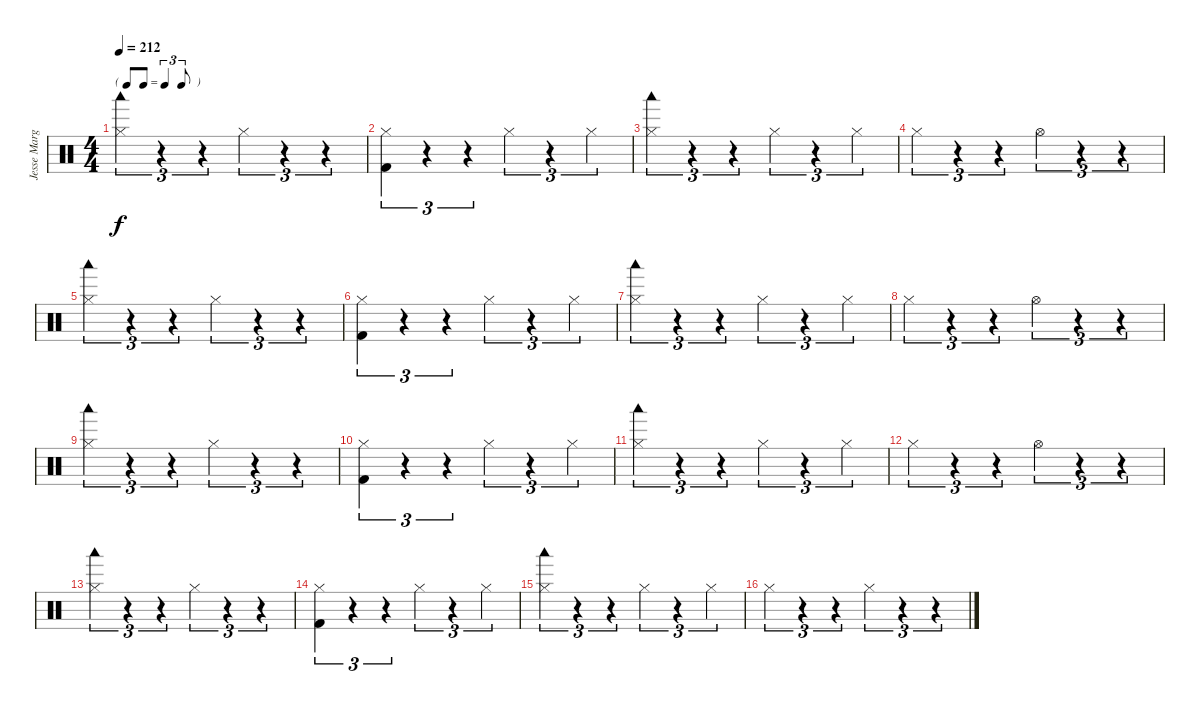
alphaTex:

\track ("Jesse Margera" "Jesse Marg") {instrument percussion}
\staff {score}
\articulation defaults
\ts (4 4)
\tf triplet8th
\tempo 212
\clef neutral
\ks c
("Hi-Hat (closed)" "Woodblock low (hit)").4{tu (3 2) dy f} r.4{tu (3 2)} r.4{tu (3 2)} "Hi-Hat (closed)".4{tu (3 2)} r.4{tu (3 2)} r.4{tu (3 2)} |
("Hi-Hat (closed)" "Kick (hit) 2").4{tu (3 2)} r.4{tu (3 2)} r.4{tu (3 2)} "Hi-Hat (closed)".4{tu (3 2)} r.4{tu (3 2)} "Hi-Hat (closed)".4{tu (3 2)} |
("Hi-Hat (closed)" "Woodblock low (hit)").4{tu (3 2)} r.4{tu (3 2)} r.4{tu (3 2)} "Hi-Hat (closed)".4{tu (3 2)} r.4{tu (3 2)} "Hi-Hat (closed)".4{tu (3 2)} |
"Hi-Hat (closed)".4{tu (3 2)} r.4{tu (3 2)} r.4{tu (3 2)} "Hi-Hat (open)".4{tu (3 2)} r.4{tu (3 2)} r.4{tu (3 2)} |
("Hi-Hat (closed)" "Woodblock low (hit)").4{tu (3 2)} r.4{tu (3 2)} r.4{tu (3 2)} "Hi-Hat (closed)".4{tu (3 2)} r.4{tu (3 2)} r.4{tu (3 2)} |
("Hi-Hat (closed)" "Kick (hit) 2").4{tu (3 2)} r.4{tu (3 2)} r.4{tu (3 2)} "Hi-Hat (closed)".4{tu (3 2)} r.4{tu (3 2)} "Hi-Hat (closed)".4{tu (3 2)} |
("Hi-Hat (closed)" "Woodblock low (hit)").4{tu (3 2)} r.4{tu (3 2)} r.4{tu (3 2)} "Hi-Hat (closed)".4{tu (3 2)} r.4{tu (3 2)} "Hi-Hat (closed)".4{tu (3 2)} |
"Hi-Hat (closed)".4{tu (3 2)} r.4{tu (3 2)} r.4{tu (3 2)} "Hi-Hat (open)".4{tu (3 2)} r.4{tu (3 2)} r.4{tu (3 2)} |
("Hi-Hat (closed)" "Woodblock low (hit)").4{tu (3 2)} r.4{tu (3 2)} r.4{tu (3 2)} "Hi-Hat (closed)".4{tu (3 2)} r.4{tu (3 2)} r.4{tu (3 2)} |
("Hi-Hat (closed)" "Kick (hit) 2").4{tu (3 2)} r.4{tu (3 2)} r.4{tu (3 2)} "Hi-Hat (closed)".4{tu (3 2)} r.4{tu (3 2)} "Hi-Hat (closed)".4{tu (3 2)} |
("Hi-Hat (closed)" "Woodblock low (hit)").4{tu (3 2)} r.4{tu (3 2)} r.4{tu (3 2)} "Hi-Hat (closed)".4{tu (3 2)} r.4{tu (3 2)} "Hi-Hat (closed)".4{tu (3 2)} |
"Hi-Hat (closed)".4{tu (3 2)} r.4{tu (3 2)} r.4{tu (3 2)} "Hi-Hat (open)".4{tu (3 2)} r.4{tu (3 2)} r.4{tu (3 2)} |
("Hi-Hat (closed)" "Woodblock low (hit)").4{tu (3 2)} r.4{tu (3 2)} r.4{tu (3 2)} "Hi-Hat (closed)".4{tu (3 2)} r.4{tu (3 2)} r.4{tu (3 2)} |
("Hi-Hat (closed)" "Kick (hit) 2").4{tu (3 2)} r.4{tu (3 2)} r.4{tu (3 2)} "Hi-Hat (closed)".4{tu (3 2)} r.4{tu (3 2)} "Hi-Hat (closed)".4{tu (3 2)} |
("Hi-Hat (closed)" "Woodblock low (hit)").4{tu (3 2)} r.4{tu (3 2)} r.4{tu (3 2)} "Hi-Hat (closed)".4{tu (3 2)} r.4{tu (3 2)} "Hi-Hat (closed)".4{tu (3 2)} |
"Hi-Hat (closed)".4{tu (3 2)} r.4{tu (3 2)} r.4{tu (3 2)} "Hi-Hat (closed)".4{tu (3 2)} r.4{tu (3 2)} r.4{tu (3 2)}
